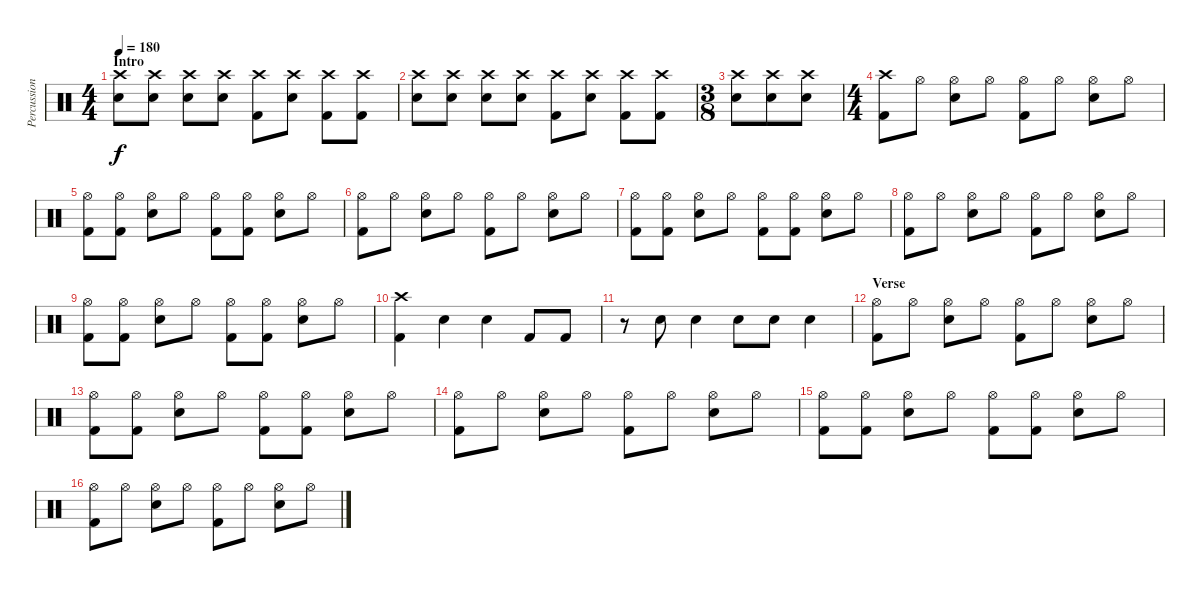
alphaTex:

\track ("Percussion" "Percussion") {instrument percussion}
\staff {score}
\articulation defaults
\ts (4 4)
\section ("" "Intro")
\tempo 180
\clef neutral
\ks c
("Crash high (hit)" "Snare (hit) 2").8{dy f} ("Crash high (hit)" "Snare (hit) 2").8 ("Crash high (hit)" "Snare (hit) 2").8 ("Crash high (hit)" "Snare (hit) 2").8 ("Crash high (hit)" "Kick (hit) 2").8 ("Crash high (hit)" "Snare (hit) 2").8 ("Crash high (hit)" "Kick (hit) 2").8 ("Crash high (hit)" "Kick (hit) 2").8 |
("Crash high (hit)" "Snare (hit) 2").8 ("Crash high (hit)" "Snare (hit) 2").8 ("Crash high (hit)" "Snare (hit) 2").8 ("Crash high (hit)" "Snare (hit) 2").8 ("Crash high (hit)" "Kick (hit) 2").8 ("Crash high (hit)" "Snare (hit) 2").8 ("Crash high (hit)" "Kick (hit) 2").8 ("Crash high (hit)" "Kick (hit) 2").8 |
\ts (3 8)
("Crash high (hit)" "Snare (hit) 2").8 ("Crash high (hit)" "Snare (hit) 2").8 ("Crash high (hit)" "Snare (hit) 2").8 |
\ts (4 4)
("Crash high (hit)" "Kick (hit) 2").8 "Hi-Hat (open)".8 ("Hi-Hat (open)" "Snare (hit) 2").8 "Hi-Hat (open)".8 ("Hi-Hat (open)" "Kick (hit) 2").8 "Hi-Hat (open)".8 ("Hi-Hat (open)" "Snare (hit) 2").8 "Hi-Hat (open)".8 |
("Hi-Hat (open)" "Kick (hit) 2").8 ("Hi-Hat (open)" "Kick (hit) 2").8 ("Hi-Hat (open)" "Snare (hit) 2").8 "Hi-Hat (open)".8 ("Hi-Hat (open)" "Kick (hit) 2").8 ("Hi-Hat (open)" "Kick (hit) 2").8 ("Hi-Hat (open)" "Snare (hit) 2").8 "Hi-Hat (open)".8 |
("Hi-Hat (open)" "Kick (hit) 2").8 "Hi-Hat (open)".8 ("Hi-Hat (open)" "Snare (hit) 2").8 "Hi-Hat (open)".8 ("Hi-Hat (open)" "Kick (hit) 2").8 "Hi-Hat (open)".8 ("Hi-Hat (open)" "Snare (hit) 2").8 "Hi-Hat (open)".8 |
("Hi-Hat (open)" "Kick (hit) 2").8 ("Hi-Hat (open)" "Kick (hit) 2").8 ("Hi-Hat (open)" "Snare (hit) 2").8 "Hi-Hat (open)".8 ("Hi-Hat (open)" "Kick (hit) 2").8 ("Hi-Hat (open)" "Kick (hit) 2").8 ("Hi-Hat (open)" "Snare (hit) 2").8 "Hi-Hat (open)".8 |
("Hi-Hat (open)" "Kick (hit) 2").8 "Hi-Hat (open)".8 ("Hi-Hat (open)" "Snare (hit) 2").8 "Hi-Hat (open)".8 ("Hi-Hat (open)" "Kick (hit) 2").8 "Hi-Hat (open)".8 ("Hi-Hat (open)" "Snare (hit) 2").8 "Hi-Hat (open)".8 |
("Hi-Hat (open)" "Kick (hit) 2").8 ("Hi-Hat (open)" "Kick (hit) 2").8 ("Hi-Hat (open)" "Snare (hit) 2").8 "Hi-Hat (open)".8 ("Hi-Hat (open)" "Kick (hit) 2").8 ("Hi-Hat (open)" "Kick (hit) 2").8 ("Hi-Hat (open)" "Snare (hit) 2").8 "Hi-Hat (open)".8 |
("Crash high (hit)" "Kick (hit) 2").4 "Snare (hit) 2".4 "Snare (hit) 2".4 "Kick (hit) 2".8 "Kick (hit) 2".8 |
r.8 "Snare (hit) 2".8 "Snare (hit) 2".4 "Snare (hit) 2".8 "Snare (hit) 2".8 "Snare (hit) 2".4 |
\section ("" "Verse")
("Hi-Hat (open)" "Kick (hit) 2").8 "Hi-Hat (open)".8 ("Hi-Hat (open)" "Snare (hit) 2").8 "Hi-Hat (open)".8 ("Hi-Hat (open)" "Kick (hit) 2").8 "Hi-Hat (open)".8 ("Hi-Hat (open)" "Snare (hit) 2").8 "Hi-Hat (open)".8 |
("Hi-Hat (open)" "Kick (hit) 2").8 ("Hi-Hat (open)" "Kick (hit) 2").8 ("Hi-Hat (open)" "Snare (hit) 2").8 "Hi-Hat (open)".8 ("Hi-Hat (open)" "Kick (hit) 2").8 ("Hi-Hat (open)" "Kick (hit) 2").8 ("Hi-Hat (open)" "Snare (hit) 2").8 "Hi-Hat (open)".8 |
("Hi-Hat (open)" "Kick (hit) 2").8 "Hi-Hat (open)".8 ("Hi-Hat (open)" "Snare (hit) 2").8 "Hi-Hat (open)".8 ("Hi-Hat (open)" "Kick (hit) 2").8 "Hi-Hat (open)".8 ("Hi-Hat (open)" "Snare (hit) 2").8 "Hi-Hat (open)".8 |
("Hi-Hat (open)" "Kick (hit) 2").8 ("Hi-Hat (open)" "Kick (hit) 2").8 ("Hi-Hat (open)" "Snare (hit) 2").8 "Hi-Hat (open)".8 ("Hi-Hat (open)" "Kick (hit) 2").8 ("Hi-Hat (open)" "Kick (hit) 2").8 ("Hi-Hat (open)" "Snare (hit) 2").8 "Hi-Hat (open)".8 |
("Hi-Hat (open)" "Kick (hit) 2").8 "Hi-Hat (open)".8 ("Hi-Hat (open)" "Snare (hit) 2").8 "Hi-Hat (open)".8 ("Hi-Hat (open)" "Kick (hit) 2").8 "Hi-Hat (open)".8 ("Hi-Hat (open)" "Snare (hit) 2").8 "Hi-Hat (open)".8
